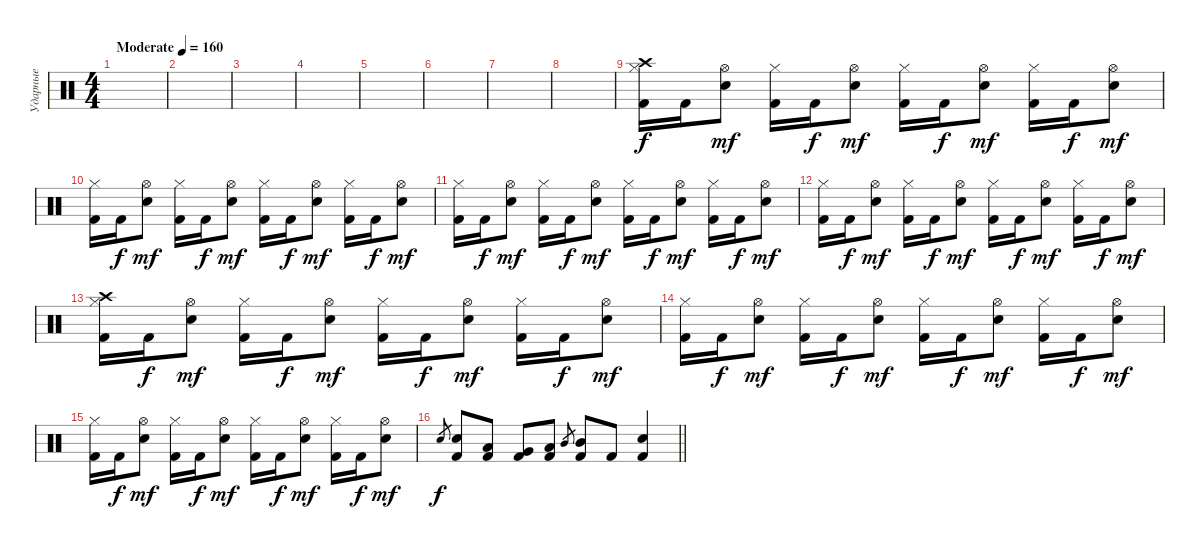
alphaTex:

\track ("Ударные" "Ударные") {instrument percussion}
\staff {score}
\articulation defaults
\ts (4 4)
\tempo (160 "Moderate")
\clef neutral
\ks c
|
|
|
|
|
|
|
|
("Kick (hit) 2" "Hi-Hat (closed)" "Crash high (hit)").16 "Kick (hit) 2".16{dy f} ("Snare (hit) 2" "Hi-Hat (open)").8{dy mf} ("Kick (hit) 2" "Hi-Hat (closed)").16 "Kick (hit) 2".16{dy f} ("Snare (hit) 2" "Hi-Hat (open)").8{dy mf} ("Kick (hit) 2" "Hi-Hat (closed)").16 "Kick (hit) 2".16{dy f} ("Snare (hit) 2" "Hi-Hat (open)").8{dy mf} ("Kick (hit) 2" "Hi-Hat (closed)").16 "Kick (hit) 2".16{dy f} ("Snare (hit) 2" "Hi-Hat (open)").8{dy mf} |
("Kick (hit) 2" "Hi-Hat (closed)").16 "Kick (hit) 2".16{dy f} ("Snare (hit) 2" "Hi-Hat (open)").8{dy mf} ("Kick (hit) 2" "Hi-Hat (closed)").16 "Kick (hit) 2".16{dy f} ("Snare (hit) 2" "Hi-Hat (open)").8{dy mf} ("Kick (hit) 2" "Hi-Hat (closed)").16 "Kick (hit) 2".16{dy f} ("Snare (hit) 2" "Hi-Hat (open)").8{dy mf} ("Kick (hit) 2" "Hi-Hat (closed)").16 "Kick (hit) 2".16{dy f} ("Snare (hit) 2" "Hi-Hat (open)").8{dy mf} |
("Kick (hit) 2" "Hi-Hat (closed)").16 "Kick (hit) 2".16{dy f} ("Snare (hit) 2" "Hi-Hat (open)").8{dy mf} ("Kick (hit) 2" "Hi-Hat (closed)").16 "Kick (hit) 2".16{dy f} ("Snare (hit) 2" "Hi-Hat (open)").8{dy mf} ("Kick (hit) 2" "Hi-Hat (closed)").16 "Kick (hit) 2".16{dy f} ("Snare (hit) 2" "Hi-Hat (open)").8{dy mf} ("Kick (hit) 2" "Hi-Hat (closed)").16 "Kick (hit) 2".16{dy f} ("Snare (hit) 2" "Hi-Hat (open)").8{dy mf} |
("Kick (hit) 2" "Hi-Hat (closed)").16 "Kick (hit) 2".16{dy f} ("Snare (hit) 2" "Hi-Hat (open)").8{dy mf} ("Kick (hit) 2" "Hi-Hat (closed)").16 "Kick (hit) 2".16{dy f} ("Snare (hit) 2" "Hi-Hat (open)").8{dy mf} ("Kick (hit) 2" "Hi-Hat (closed)").16 "Kick (hit) 2".16{dy f} ("Snare (hit) 2" "Hi-Hat (open)").8{dy mf} ("Kick (hit) 2" "Hi-Hat (closed)").16 "Kick (hit) 2".16{dy f} ("Snare (hit) 2" "Hi-Hat (open)").8{dy mf} |
("Kick (hit) 2" "Hi-Hat (closed)" "Crash high (hit)").16 "Kick (hit) 2".16{dy f} ("Snare (hit) 2" "Hi-Hat (open)").8{dy mf} ("Kick (hit) 2" "Hi-Hat (closed)").16 "Kick (hit) 2".16{dy f} ("Snare (hit) 2" "Hi-Hat (open)").8{dy mf} ("Kick (hit) 2" "Hi-Hat (closed)").16 "Kick (hit) 2".16{dy f} ("Snare (hit) 2" "Hi-Hat (open)").8{dy mf} ("Kick (hit) 2" "Hi-Hat (closed)").16 "Kick (hit) 2".16{dy f} ("Snare (hit) 2" "Hi-Hat (open)").8{dy mf} |
("Kick (hit) 2" "Hi-Hat (closed)").16 "Kick (hit) 2".16{dy f} ("Snare (hit) 2" "Hi-Hat (open)").8{dy mf} ("Kick (hit) 2" "Hi-Hat (closed)").16 "Kick (hit) 2".16{dy f} ("Snare (hit) 2" "Hi-Hat (open)").8{dy mf} ("Kick (hit) 2" "Hi-Hat (closed)").16 "Kick (hit) 2".16{dy f} ("Snare (hit) 2" "Hi-Hat (open)").8{dy mf} ("Kick (hit) 2" "Hi-Hat (closed)").16 "Kick (hit) 2".16{dy f} ("Snare (hit) 2" "Hi-Hat (open)").8{dy mf} |
("Kick (hit) 2" "Hi-Hat (closed)").16 "Kick (hit) 2".16{dy f} ("Snare (hit) 2" "Hi-Hat (open)").8{dy mf} ("Kick (hit) 2" "Hi-Hat (closed)").16 "Kick (hit) 2".16{dy f} ("Snare (hit) 2" "Hi-Hat (open)").8{dy mf} ("Kick (hit) 2" "Hi-Hat (closed)").16 "Kick (hit) 2".16{dy f} ("Snare (hit) 2" "Hi-Hat (open)").8{dy mf} ("Kick (hit) 2" "Hi-Hat (closed)").16 "Kick (hit) 2".16{dy f} ("Snare (hit) 2" "Hi-Hat (open)").8{dy mf} |
\barLineRight lightlight "Electric Snare (hit)".8{gr dy f}
("Kick (hit) 2" "Electric Snare (hit)").8 ("Kick (hit) 2" "Low Floor Tom (hit)").8 ("Kick (hit) 2" "Very Low Tom (hit)").8 ("Kick (hit) 2" "Low Tom (hit)").8 "Mid Tom (hit)".8{gr} ("Kick (hit) 2" "Mid Tom (hit)").8 "Kick (hit) 2".8 ("Kick (hit) 2" "Electric Snare (hit)").4
